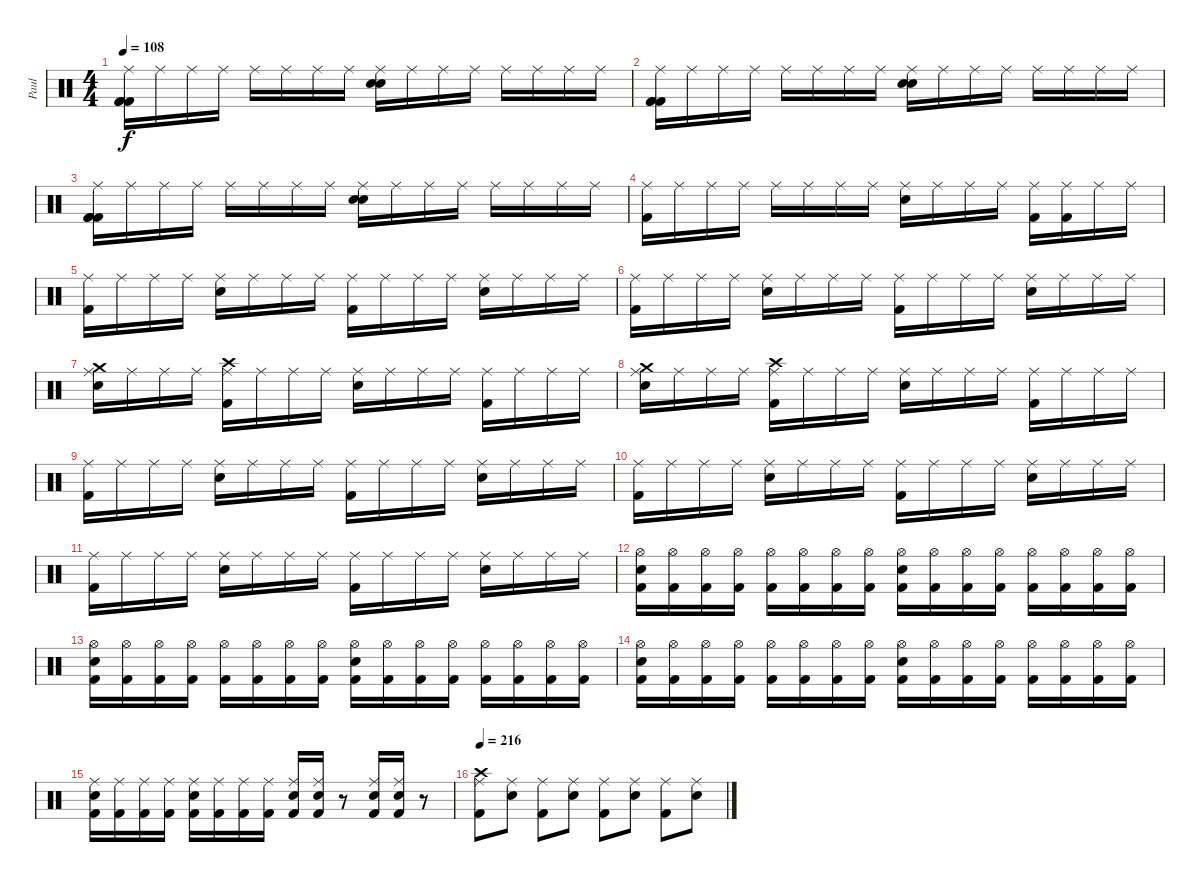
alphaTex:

\track ("Paul" "Paul") {instrument percussion}
\staff {score}
\articulation defaults
\ts (4 4)
\tempo 108
\clef neutral
\ks c
("Kick (hit) 2" "Ride (middle)" "Kick (hit) 2" "Kick (hit) 2").16{dy f} "Ride (middle)".16 "Ride (middle)".16 "Ride (middle)".16 "Ride (middle)".16 "Ride (middle)".16 "Ride (middle)".16 "Ride (middle)".16 ("Electric Snare (hit)" "Ride (middle)" "Electric Snare (hit)").16 "Ride (middle)".16 "Ride (middle)".16 "Ride (middle)".16 "Ride (middle)".16 "Ride (middle)".16 "Ride (middle)".16 "Ride (middle)".16 |
("Kick (hit) 2" "Ride (middle)" "Kick (hit) 2" "Kick (hit) 2").16 "Ride (middle)".16 "Ride (middle)".16 "Ride (middle)".16 "Ride (middle)".16 "Ride (middle)".16 "Ride (middle)".16 "Ride (middle)".16 ("Electric Snare (hit)" "Ride (middle)" "Electric Snare (hit)").16 "Ride (middle)".16 "Ride (middle)".16 "Ride (middle)".16 "Ride (middle)".16 "Ride (middle)".16 "Ride (middle)".16 "Ride (middle)".16 |
("Kick (hit) 2" "Ride (middle)" "Kick (hit) 2" "Kick (hit) 2").16 "Ride (middle)".16 "Ride (middle)".16 "Ride (middle)".16 "Ride (middle)".16 "Ride (middle)".16 "Ride (middle)".16 "Ride (middle)".16 ("Electric Snare (hit)" "Ride (middle)" "Electric Snare (hit)").16 "Ride (middle)".16 "Ride (middle)".16 "Ride (middle)".16 "Ride (middle)".16 "Ride (middle)".16 "Ride (middle)".16 "Ride (middle)".16 |
("Kick (hit) 2" "Ride (middle)").16 "Ride (middle)".16 "Ride (middle)".16 "Ride (middle)".16 "Ride (middle)".16 "Ride (middle)".16 "Ride (middle)".16 "Ride (middle)".16 ("Electric Snare (hit)" "Ride (middle)").16 "Ride (middle)".16 "Ride (middle)".16 "Ride (middle)".16 ("Kick (hit) 2" "Ride (middle)").16 ("Kick (hit) 2" "Ride (middle)").16 "Ride (middle)".16 "Ride (middle)".16 |
("Kick (hit) 2" "Ride (middle)").16 "Ride (middle)".16 "Ride (middle)".16 "Ride (middle)".16 ("Electric Snare (hit)" "Ride (middle)").16 "Ride (middle)".16 "Ride (middle)".16 "Ride (middle)".16 ("Kick (hit) 2" "Ride (middle)").16 "Ride (middle)".16 "Ride (middle)".16 "Ride (middle)".16 ("Electric Snare (hit)" "Ride (middle)").16 "Ride (middle)".16 "Ride (middle)".16 "Ride (middle)".16 |
("Kick (hit) 2" "Ride (middle)").16 "Ride (middle)".16 "Ride (middle)".16 "Ride (middle)".16 ("Electric Snare (hit)" "Ride (middle)").16 "Ride (middle)".16 "Ride (middle)".16 "Ride (middle)".16 ("Kick (hit) 2" "Ride (middle)").16 "Ride (middle)".16 "Ride (middle)".16 "Ride (middle)".16 ("Electric Snare (hit)" "Ride (middle)").16 "Ride (middle)".16 "Ride (middle)".16 "Ride (middle)".16 |
("Electric Snare (hit)" "Crash medium (hit)" "Ride (middle)").16 "Ride (middle)".16 "Ride (middle)".16 "Ride (middle)".16 ("Kick (hit) 2" "Crash high (hit)" "Ride (middle)").16 "Ride (middle)".16 "Ride (middle)".16 "Ride (middle)".16 ("Electric Snare (hit)" "Ride (middle)").16 "Ride (middle)".16 "Ride (middle)".16 "Ride (middle)".16 ("Kick (hit) 2" "Ride (middle)").16 "Ride (middle)".16 "Ride (middle)".16 "Ride (middle)".16 |
("Electric Snare (hit)" "Crash medium (hit)" "Ride (middle)").16 "Ride (middle)".16 "Ride (middle)".16 "Ride (middle)".16 ("Kick (hit) 2" "Crash high (hit)" "Ride (middle)").16 "Ride (middle)".16 "Ride (middle)".16 "Ride (middle)".16 ("Electric Snare (hit)" "Ride (middle)").16 "Ride (middle)".16 "Ride (middle)".16 "Ride (middle)".16 ("Kick (hit) 2" "Ride (middle)").16 "Ride (middle)".16 "Ride (middle)".16 "Ride (middle)".16 |
("Kick (hit) 2" "Ride (middle)").16 "Ride (middle)".16 "Ride (middle)".16 "Ride (middle)".16 ("Electric Snare (hit)" "Ride (middle)").16 "Ride (middle)".16 "Ride (middle)".16 "Ride (middle)".16 ("Kick (hit) 2" "Ride (middle)").16 "Ride (middle)".16 "Ride (middle)".16 "Ride (middle)".16 ("Electric Snare (hit)" "Ride (middle)").16 "Ride (middle)".16 "Ride (middle)".16 "Ride (middle)".16 |
("Kick (hit) 2" "Ride (middle)").16 "Ride (middle)".16 "Ride (middle)".16 "Ride (middle)".16 ("Electric Snare (hit)" "Ride (middle)").16 "Ride (middle)".16 "Ride (middle)".16 "Ride (middle)".16 ("Kick (hit) 2" "Ride (middle)").16 "Ride (middle)".16 "Ride (middle)".16 "Ride (middle)".16 ("Electric Snare (hit)" "Ride (middle)").16 "Ride (middle)".16 "Ride (middle)".16 "Ride (middle)".16 |
("Kick (hit) 2" "Ride (middle)").16 "Ride (middle)".16 "Ride (middle)".16 "Ride (middle)".16 ("Electric Snare (hit)" "Ride (middle)").16 "Ride (middle)".16 "Ride (middle)".16 "Ride (middle)".16 ("Kick (hit) 2" "Ride (middle)").16 "Ride (middle)".16 "Ride (middle)".16 "Ride (middle)".16 ("Electric Snare (hit)" "Ride (middle)").16 "Ride (middle)".16 "Ride (middle)".16 "Ride (middle)".16 |
("Electric Snare (hit)" "Hi-Hat (open)" "Kick (hit) 2").16 ("Hi-Hat (open)" "Kick (hit) 2").16 ("Hi-Hat (open)" "Kick (hit) 2").16 ("Hi-Hat (open)" "Kick (hit) 2").16 ("Hi-Hat (open)" "Kick (hit) 2").16 ("Hi-Hat (open)" "Kick (hit) 2").16 ("Hi-Hat (open)" "Kick (hit) 2").16 ("Hi-Hat (open)" "Kick (hit) 2").16 ("Electric Snare (hit)" "Hi-Hat (open)" "Kick (hit) 2").16 ("Hi-Hat (open)" "Kick (hit) 2").16 ("Hi-Hat (open)" "Kick (hit) 2").16 ("Hi-Hat (open)" "Kick (hit) 2").16 ("Hi-Hat (open)" "Kick (hit) 2").16 ("Hi-Hat (open)" "Kick (hit) 2").16 ("Hi-Hat (open)" "Kick (hit) 2").16 ("Hi-Hat (open)" "Kick (hit) 2").16 |
("Electric Snare (hit)" "Hi-Hat (open)" "Kick (hit) 2").16 ("Hi-Hat (open)" "Kick (hit) 2").16 ("Hi-Hat (open)" "Kick (hit) 2").16 ("Hi-Hat (open)" "Kick (hit) 2").16 ("Hi-Hat (open)" "Kick (hit) 2").16 ("Hi-Hat (open)" "Kick (hit) 2").16 ("Hi-Hat (open)" "Kick (hit) 2").16 ("Hi-Hat (open)" "Kick (hit) 2").16 ("Electric Snare (hit)" "Hi-Hat (open)" "Kick (hit) 2").16 ("Hi-Hat (open)" "Kick (hit) 2").16 ("Hi-Hat (open)" "Kick (hit) 2").16 ("Hi-Hat (open)" "Kick (hit) 2").16 ("Hi-Hat (open)" "Kick (hit) 2").16 ("Hi-Hat (open)" "Kick (hit) 2").16 ("Hi-Hat (open)" "Kick (hit) 2").16 ("Hi-Hat (open)" "Kick (hit) 2").16 |
("Electric Snare (hit)" "Hi-Hat (open)" "Kick (hit) 2").16 ("Hi-Hat (open)" "Kick (hit) 2").16 ("Hi-Hat (open)" "Kick (hit) 2").16 ("Hi-Hat (open)" "Kick (hit) 2").16 ("Hi-Hat (open)" "Kick (hit) 2").16 ("Hi-Hat (open)" "Kick (hit) 2").16 ("Hi-Hat (open)" "Kick (hit) 2").16 ("Hi-Hat (open)" "Kick (hit) 2").16 ("Electric Snare (hit)" "Hi-Hat (open)" "Kick (hit) 2").16 ("Hi-Hat (open)" "Kick (hit) 2").16 ("Hi-Hat (open)" "Kick (hit) 2").16 ("Hi-Hat (open)" "Kick (hit) 2").16 ("Hi-Hat (open)" "Kick (hit) 2").16 ("Hi-Hat (open)" "Kick (hit) 2").16 ("Hi-Hat (open)" "Kick (hit) 2").16 ("Hi-Hat (open)" "Kick (hit) 2").16 |
("Electric Snare (hit)" "Ride (middle)" "Kick (hit) 2").16 ("Ride (middle)" "Kick (hit) 2").16 ("Ride (middle)" "Kick (hit) 2").16 ("Ride (middle)" "Kick (hit) 2").16 ("Electric Snare (hit)" "Ride (middle)" "Kick (hit) 2").16 ("Ride (middle)" "Kick (hit) 2").16 ("Ride (middle)" "Kick (hit) 2").16 ("Ride (middle)" "Kick (hit) 2").16 ("Electric Snare (hit)" "Ride (middle)" "Kick (hit) 2").16 ("Snare (hit) 2" "Ride (middle)" "Kick (hit) 2").16 r.8 ("Electric Snare (hit)" "Ride (middle)" "Kick (hit) 2").16 ("Snare (hit) 2" "Ride (middle)" "Kick (hit) 2").16 r.8 |
\tempo 216
("Crash high (hit)" "Ride (middle)" "Kick (hit) 2").8 ("Ride (middle)" "Electric Snare (hit)").8 ("Ride (middle)" "Kick (hit) 2").8 ("Ride (middle)" "Electric Snare (hit)").8 ("Ride (middle)" "Kick (hit) 2").8 ("Ride (middle)" "Electric Snare (hit)").8 ("Ride (middle)" "Kick (hit) 2").8 ("Ride (middle)" "Electric Snare (hit)").8
